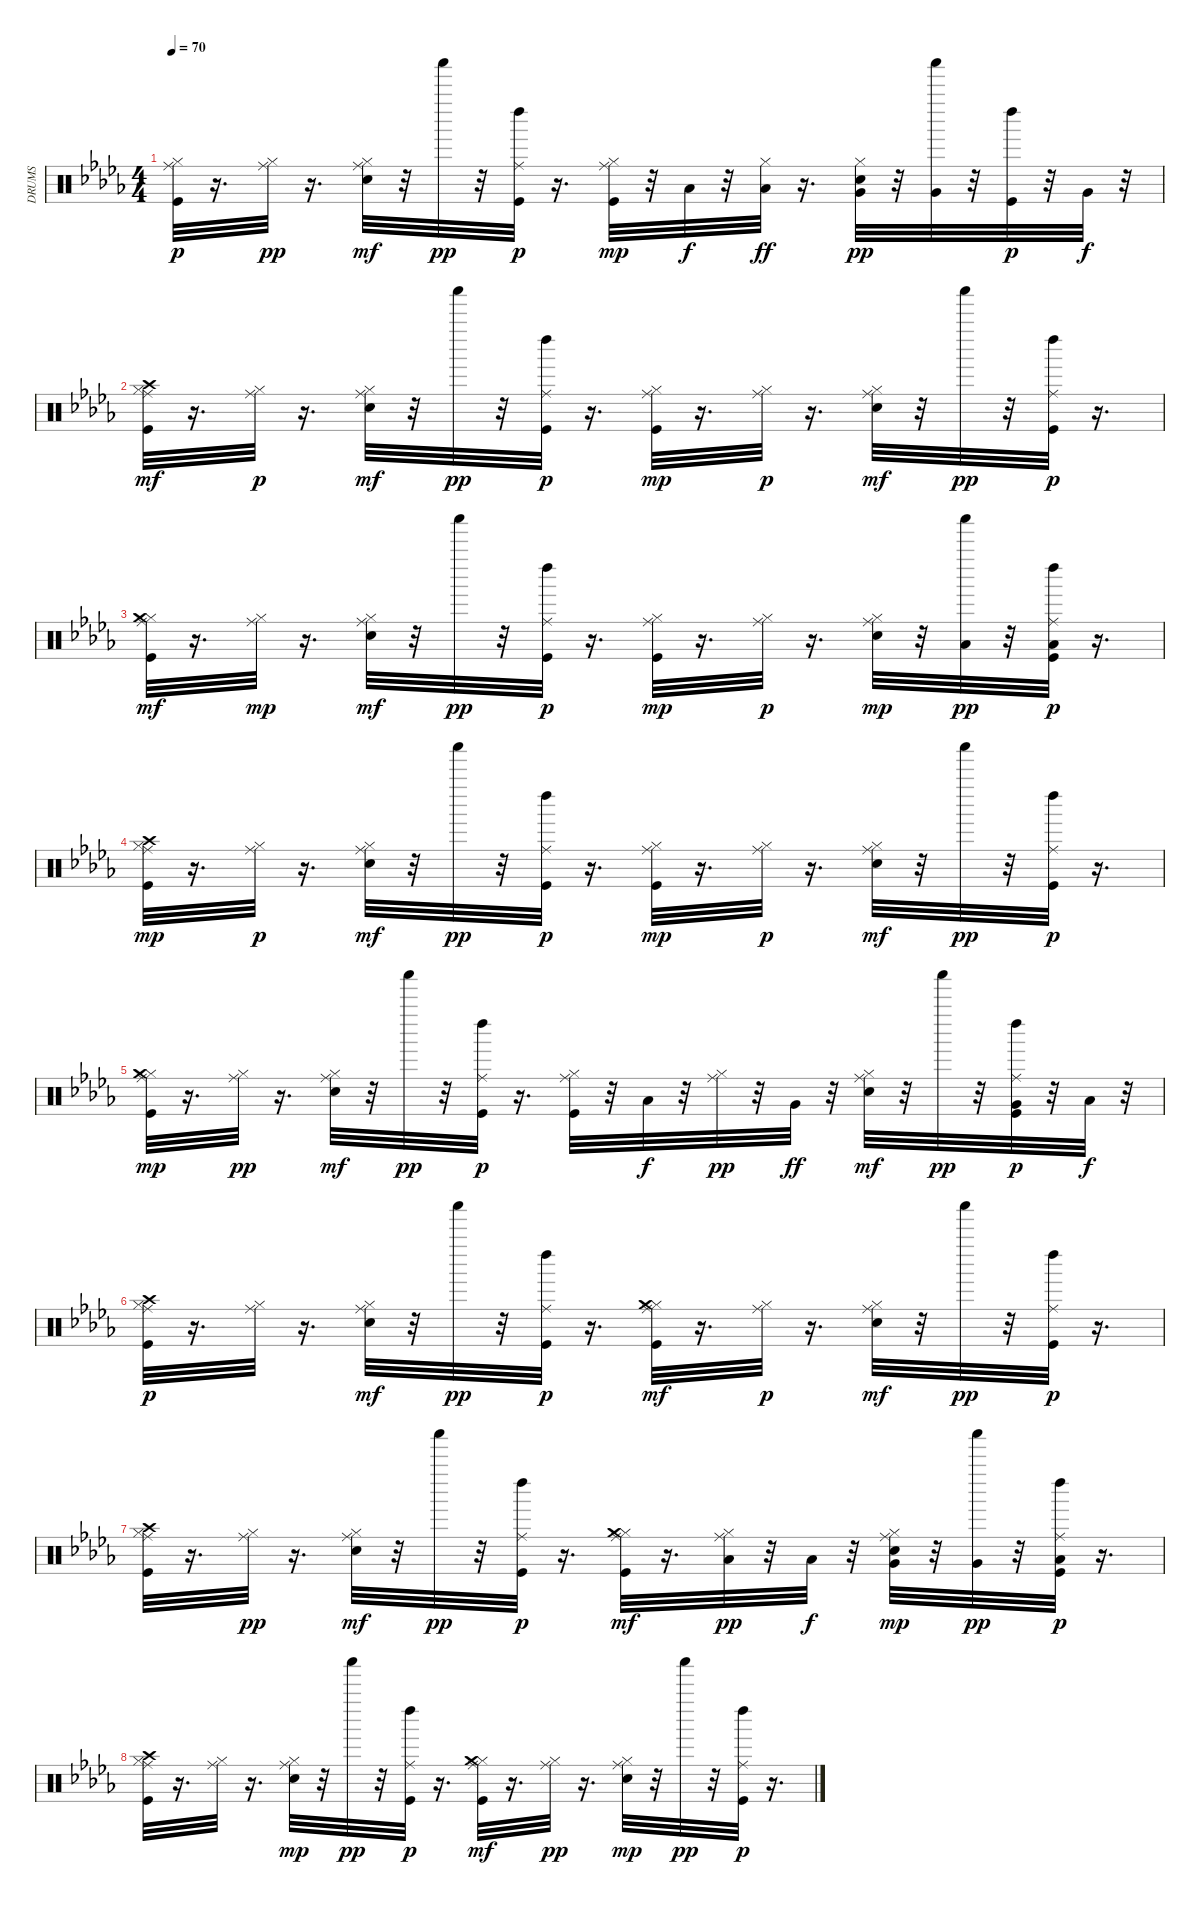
\track ("DRUMS" "DRUMS") {instrument percussion}
\staff {score}
\articulation defaults
\ts (4 4)
\tempo 70
\clef neutral
\ks bbminor
("Kick (hit)" "Hi-Hat (closed)" "Ride (middle)").32{dy p} r.16{d} ("Hi-Hat (closed)" "Ride (middle)").32{dy pp} r.16{d} ("Electric Snare (hit)" "Hi-Hat (closed)" "Ride (middle)").32{dy mf} r.32 "Shaker (hit)".32{dy pp} r.32 ("Kick (hit)" "Ride (middle)" "Left Maraca (hit)").32{dy p} r.16{d} ("Kick (hit)" "Hi-Hat (closed)" "Ride (middle)").32{dy mp} r.32 "Low Tom (hit)".32{dy f} r.32 ("Hi-Hat (closed)" "Low Tom (hit)").32{dy ff} r.16{d} ("Electric Snare (hit)" "Hi-Hat (closed)" "Very Low Tom (hit)").32{dy pp} r.32 ("Very Low Tom (hit)" "Shaker (hit)").32 r.32 ("Kick (hit)" "Left Maraca (hit)").32{dy p} r.32 "Very Low Tom (hit)".32{dy f} r.32 |
("Kick (hit)" "Hi-Hat (closed)" "Crash high (hit)" "Ride (middle)").32{dy mf} r.16{d} ("Hi-Hat (closed)" "Ride (middle)").32{dy p} r.16{d} ("Electric Snare (hit)" "Hi-Hat (closed)" "Ride (middle)").32{dy mf} r.32 "Shaker (hit)".32{dy pp} r.32 ("Kick (hit)" "Ride (middle)" "Left Maraca (hit)").32{dy p} r.16{d} ("Kick (hit)" "Hi-Hat (closed)" "Ride (middle)").32{dy mp} r.16{d} ("Hi-Hat (closed)" "Ride (middle)").32{dy p} r.16{d} ("Electric Snare (hit)" "Hi-Hat (closed)" "Ride (middle)").32{dy mf} r.32 "Shaker (hit)".32{dy pp} r.32 ("Kick (hit)" "Ride (middle)" "Left Maraca (hit)").32{dy p} r.16{d} |
("Kick (hit)" "Hi-Hat (closed)" "Ride (middle)" "Crash medium (hit)").32{dy mf} r.16{d} ("Hi-Hat (closed)" "Ride (middle)").32{dy mp} r.16{d} ("Electric Snare (hit)" "Hi-Hat (closed)" "Ride (middle)").32{dy mf} r.32 "Shaker (hit)".32{dy pp} r.32 ("Kick (hit)" "Ride (middle)" "Left Maraca (hit)").32{dy p} r.16{d} ("Kick (hit)" "Hi-Hat (closed)" "Ride (middle)").32{dy mp} r.16{d} ("Hi-Hat (closed)" "Ride (middle)").32{dy p} r.16{d} ("Electric Snare (hit)" "Hi-Hat (closed)" "Ride (middle)").32{dy mp} r.32 ("Low Tom (hit)" "Shaker (hit)").32{dy pp} r.32 ("Kick (hit)" "Low Tom (hit)" "Ride (middle)" "Left Maraca (hit)").32{dy p} r.16{d} |
("Kick (hit)" "Hi-Hat (closed)" "Crash high (hit)" "Ride (middle)").32{dy mp} r.16{d} ("Hi-Hat (closed)" "Ride (middle)").32{dy p} r.16{d} ("Electric Snare (hit)" "Hi-Hat (closed)" "Ride (middle)").32{dy mf} r.32 "Shaker (hit)".32{dy pp} r.32 ("Kick (hit)" "Ride (middle)" "Left Maraca (hit)").32{dy p} r.16{d} ("Kick (hit)" "Hi-Hat (closed)" "Ride (middle)").32{dy mp} r.16{d} ("Hi-Hat (closed)" "Ride (middle)").32{dy p} r.16{d} ("Electric Snare (hit)" "Hi-Hat (closed)" "Ride (middle)").32{dy mf} r.32 "Shaker (hit)".32{dy pp} r.32 ("Kick (hit)" "Ride (middle)" "Left Maraca (hit)").32{dy p} r.16{d} |
("Kick (hit)" "Hi-Hat (closed)" "Ride (middle)" "Crash medium (hit)").32{dy mp} r.16{d} ("Hi-Hat (closed)" "Ride (middle)").32{dy pp} r.16{d} ("Electric Snare (hit)" "Hi-Hat (closed)" "Ride (middle)").32{dy mf} r.32 "Shaker (hit)".32{dy pp} r.32 ("Kick (hit)" "Ride (middle)" "Left Maraca (hit)").32{dy p} r.16{d} ("Kick (hit)" "Hi-Hat (closed)" "Ride (middle)").32 r.32 "Low Tom (hit)".32{dy f} r.32 ("Hi-Hat (closed)" "Ride (middle)").32{dy pp} r.32 "Very Low Tom (hit)".32{dy ff} r.32 ("Electric Snare (hit)" "Hi-Hat (closed)" "Ride (middle)").32{dy mf} r.32 "Shaker (hit)".32{dy pp} r.32 ("Kick (hit)" "Very Low Tom (hit)" "Ride (middle)" "Left Maraca (hit)").32{dy p} r.32 "Low Tom (hit)".32{dy f} r.32 |
("Kick (hit)" "Hi-Hat (closed)" "Crash high (hit)" "Ride (middle)").32{dy p} r.16{d} ("Hi-Hat (closed)" "Ride (middle)").32 r.16{d} ("Electric Snare (hit)" "Hi-Hat (closed)" "Ride (middle)").32{dy mf} r.32 "Shaker (hit)".32{dy pp} r.32 ("Kick (hit)" "Ride (middle)" "Left Maraca (hit)").32{dy p} r.16{d} ("Kick (hit)" "Hi-Hat (closed)" "Ride (middle)" "Crash medium (hit)").32{dy mf} r.16{d} ("Hi-Hat (closed)" "Ride (middle)").32{dy p} r.16{d} ("Electric Snare (hit)" "Hi-Hat (closed)" "Ride (middle)").32{dy mf} r.32 "Shaker (hit)".32{dy pp} r.32 ("Kick (hit)" "Ride (middle)" "Left Maraca (hit)").32{dy p} r.16{d} |
("Kick (hit)" "Hi-Hat (closed)" "Crash high (hit)" "Ride (middle)").32 r.16{d} ("Hi-Hat (closed)" "Ride (middle)").32{dy pp} r.16{d} ("Electric Snare (hit)" "Hi-Hat (closed)" "Ride (middle)").32{dy mf} r.32 "Shaker (hit)".32{dy pp} r.32 ("Kick (hit)" "Ride (middle)" "Left Maraca (hit)").32{dy p} r.16{d} ("Kick (hit)" "Hi-Hat (closed)" "Ride (middle)" "Crash medium (hit)").32{dy mf} r.16{d} ("Hi-Hat (closed)" "Low Tom (hit)" "Ride (middle)").32{dy pp} r.32 "Low Tom (hit)".32{dy f} r.32 ("Electric Snare (hit)" "Hi-Hat (closed)" "Very Low Tom (hit)" "Ride (middle)").32{dy mp} r.32 ("Very Low Tom (hit)" "Shaker (hit)").32{dy pp} r.32 ("Kick (hit)" "Low Tom (hit)" "Ride (middle)" "Left Maraca (hit)").32{dy p} r.16{d} |
("Kick (hit)" "Hi-Hat (closed)" "Crash high (hit)" "Ride (middle)").32 r.16{d} ("Hi-Hat (closed)" "Ride (middle)").32 r.16{d} ("Electric Snare (hit)" "Hi-Hat (closed)" "Ride (middle)").32{dy mp} r.32 "Shaker (hit)".32{dy pp} r.32 ("Kick (hit)" "Ride (middle)" "Left Maraca (hit)").32{dy p} r.16{d} ("Kick (hit)" "Hi-Hat (closed)" "Ride (middle)" "Crash medium (hit)").32{dy mf} r.16{d} ("Hi-Hat (closed)" "Ride (middle)").32{dy pp} r.16{d} ("Electric Snare (hit)" "Hi-Hat (closed)" "Ride (middle)").32{dy mp} r.32 "Shaker (hit)".32{dy pp} r.32 ("Kick (hit)" "Ride (middle)" "Left Maraca (hit)").32{dy p} r.16{d}
